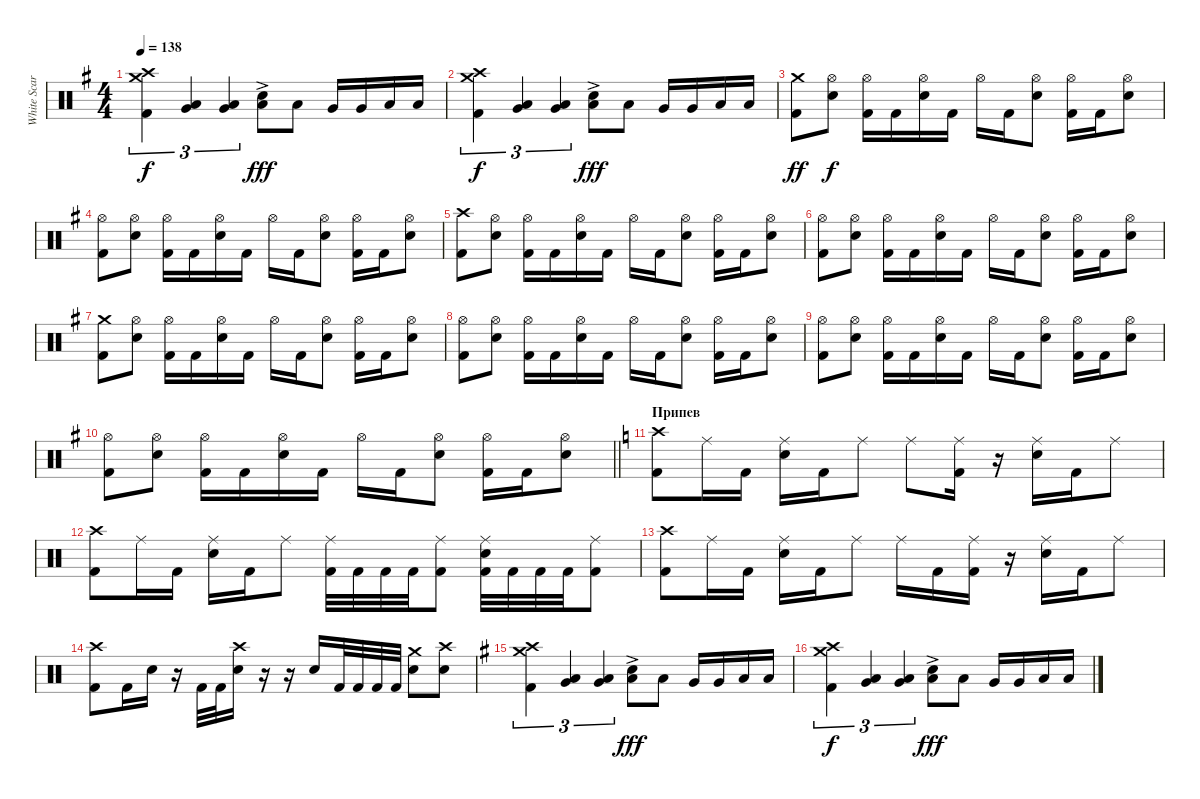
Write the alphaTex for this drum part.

\track ("White Scar" "White Scar") {instrument percussion}
\staff {score}
\articulation defaults
\ts (4 4)
\tempo 138
\clef neutral
\ks eminor
("Crash high (hit)" "Crash medium (hit)" "Kick (hit) 2").4{tu (3 2) dy f} ("Low Tom (hit)" "Very Low Tom (hit)").4{tu (3 2)} ("Very Low Tom (hit)" "Low Floor Tom (hit)").4{tu (3 2)} ("Snare (hit) 2"{ac} "Low Floor Tom (hit)").8{dy fff} "Low Tom (hit)".8 "Very Low Tom (hit)".16 "Very Low Tom (hit)".16 "Low Floor Tom (hit)".16 "Low Floor Tom (hit)".16 |
("Crash high (hit)" "Crash medium (hit)" "Kick (hit) 2").4{tu (3 2) dy f} ("Low Tom (hit)" "Very Low Tom (hit)").4{tu (3 2)} ("Very Low Tom (hit)" "Low Floor Tom (hit)").4{tu (3 2)} ("Snare (hit) 2"{ac} "Low Floor Tom (hit)").8{dy fff} "Low Tom (hit)".8 "Very Low Tom (hit)".16 "Very Low Tom (hit)".16 "Low Floor Tom (hit)".16 "Low Floor Tom (hit)".16 |
("Crash medium (hit)" "Kick (hit) 2").8{dy ff} ("Hi-Hat (open)" "Snare (hit) 2").8{dy f} ("Hi-Hat (open)" "Kick (hit) 2").16 "Kick (hit) 2".16 ("Hi-Hat (open)" "Snare (hit) 2").16 "Kick (hit) 2".16 "Hi-Hat (open)".16 "Kick (hit) 2".16 ("Hi-Hat (open)" "Snare (hit) 2").8 ("Hi-Hat (open)" "Kick (hit) 2").16 "Kick (hit) 2".16 ("Hi-Hat (open)" "Snare (hit) 2").8 |
("Hi-Hat (open)" "Kick (hit) 2").8 ("Hi-Hat (open)" "Snare (hit) 2").8 ("Hi-Hat (open)" "Kick (hit) 2").16 "Kick (hit) 2".16 ("Hi-Hat (open)" "Snare (hit) 2").16 "Kick (hit) 2".16 "Hi-Hat (open)".16 "Kick (hit) 2".16 ("Hi-Hat (open)" "Snare (hit) 2").8 ("Hi-Hat (open)" "Kick (hit) 2").16 "Kick (hit) 2".16 ("Hi-Hat (open)" "Snare (hit) 2").8 |
("Crash high (hit)" "Kick (hit) 2").8 ("Hi-Hat (open)" "Snare (hit) 2").8 ("Hi-Hat (open)" "Kick (hit) 2").16 "Kick (hit) 2".16 ("Hi-Hat (open)" "Snare (hit) 2").16 "Kick (hit) 2".16 "Hi-Hat (open)".16 "Kick (hit) 2".16 ("Hi-Hat (open)" "Snare (hit) 2").8 ("Hi-Hat (open)" "Kick (hit) 2").16 "Kick (hit) 2".16 ("Hi-Hat (open)" "Snare (hit) 2").8 |
("Hi-Hat (open)" "Kick (hit) 2").8 ("Hi-Hat (open)" "Snare (hit) 2").8 ("Hi-Hat (open)" "Kick (hit) 2").16 "Kick (hit) 2".16 ("Hi-Hat (open)" "Snare (hit) 2").16 "Kick (hit) 2".16 "Hi-Hat (open)".16 "Kick (hit) 2".16 ("Hi-Hat (open)" "Snare (hit) 2").8 ("Hi-Hat (open)" "Kick (hit) 2").16 "Kick (hit) 2".16 ("Hi-Hat (open)" "Snare (hit) 2").8 |
("Crash medium (hit)" "Kick (hit) 2").8 ("Hi-Hat (open)" "Snare (hit) 2").8 ("Hi-Hat (open)" "Kick (hit) 2").16 "Kick (hit) 2".16 ("Hi-Hat (open)" "Snare (hit) 2").16 "Kick (hit) 2".16 "Hi-Hat (open)".16 "Kick (hit) 2".16 ("Hi-Hat (open)" "Snare (hit) 2").8 ("Hi-Hat (open)" "Kick (hit) 2").16 "Kick (hit) 2".16 ("Hi-Hat (open)" "Snare (hit) 2").8 |
("Hi-Hat (open)" "Kick (hit) 2").8 ("Hi-Hat (open)" "Snare (hit) 2").8 ("Hi-Hat (open)" "Kick (hit) 2").16 "Kick (hit) 2".16 ("Hi-Hat (open)" "Snare (hit) 2").16 "Kick (hit) 2".16 "Hi-Hat (open)".16 "Kick (hit) 2".16 ("Hi-Hat (open)" "Snare (hit) 2").8 ("Hi-Hat (open)" "Kick (hit) 2").16 "Kick (hit) 2".16 ("Hi-Hat (open)" "Snare (hit) 2").8 |
("Hi-Hat (open)" "Kick (hit) 2").8 ("Hi-Hat (open)" "Snare (hit) 2").8 ("Hi-Hat (open)" "Kick (hit) 2").16 "Kick (hit) 2".16 ("Hi-Hat (open)" "Snare (hit) 2").16 "Kick (hit) 2".16 "Hi-Hat (open)".16 "Kick (hit) 2".16 ("Hi-Hat (open)" "Snare (hit) 2").8 ("Hi-Hat (open)" "Kick (hit) 2").16 "Kick (hit) 2".16 ("Hi-Hat (open)" "Snare (hit) 2").8 |
\barLineRight lightlight
("Hi-Hat (open)" "Kick (hit) 2").8 ("Hi-Hat (open)" "Snare (hit) 2").8 ("Hi-Hat (open)" "Kick (hit) 2").16 "Kick (hit) 2".16 ("Hi-Hat (open)" "Snare (hit) 2").16 "Kick (hit) 2".16 "Hi-Hat (open)".16 "Kick (hit) 2".16 ("Hi-Hat (open)" "Snare (hit) 2").8 ("Hi-Hat (open)" "Kick (hit) 2").16 "Kick (hit) 2".16 ("Hi-Hat (open)" "Snare (hit) 2").8 |
\section ("" "Припев")
\ks c
("Crash high (hit)" "Kick (hit) 2").8 "Ride (middle)".16 "Kick (hit) 2".16 ("Ride (middle)" "Snare (hit) 2").16 "Kick (hit) 2".16 "Ride (middle)".8 "Ride (middle)".8 ("Ride (middle)" "Kick (hit) 2").16 r.16 ("Ride (middle)" "Snare (hit) 2").16 "Kick (hit) 2".16 "Ride (middle)".8 |
("Crash high (hit)" "Kick (hit) 2").8 "Ride (middle)".16 "Kick (hit) 2".16 ("Ride (middle)" "Snare (hit) 2").16 "Kick (hit) 2".16 "Ride (middle)".8 ("Ride (middle)" "Kick (hit) 2").32 "Kick (hit) 2".32 "Kick (hit) 2".32 "Kick (hit) 2".32 ("Ride (middle)" "Kick (hit) 2").8 ("Ride (middle)" "Snare (hit) 2" "Kick (hit) 2").32 "Kick (hit) 2".32 "Kick (hit) 2".32 "Kick (hit) 2".32 ("Ride (middle)" "Kick (hit) 2").8 |
("Crash high (hit)" "Kick (hit) 2").8 "Ride (middle)".16 "Kick (hit) 2".16 ("Ride (middle)" "Snare (hit) 2").16 "Kick (hit) 2".16 "Ride (middle)".8 "Ride (middle)".16 "Kick (hit) 2".16 ("Ride (middle)" "Kick (hit) 2").16 r.16 ("Ride (middle)" "Snare (hit) 2").16 "Kick (hit) 2".16 "Ride (middle)".8 |
("Crash high (hit)" "Kick (hit) 2").8 "Kick (hit) 2".16 "Snare (hit) 2".16 r.16 "Kick (hit) 2".32 "Kick (hit) 2".32 ("Crash high (hit)" "Snare (hit) 2").16 r.16 r.16 "Snare (hit) 2".16 "Kick (hit) 2".32 "Kick (hit) 2".32 "Kick (hit) 2".32 "Kick (hit) 2".32 ("Crash medium (hit)" "Snare (hit) 2").8 ("Crash high (hit)" "Snare (hit) 2").8 |
\ks eminor
("Crash high (hit)" "Crash medium (hit)" "Kick (hit) 2").4{tu (3 2)} ("Low Tom (hit)" "Very Low Tom (hit)").4{tu (3 2)} ("Very Low Tom (hit)" "Low Floor Tom (hit)").4{tu (3 2)} ("Snare (hit) 2"{ac} "Low Floor Tom (hit)").8{dy fff} "Low Tom (hit)".8 "Very Low Tom (hit)".16 "Very Low Tom (hit)".16 "Low Floor Tom (hit)".16 "Low Floor Tom (hit)".16 |
("Crash high (hit)" "Crash medium (hit)" "Kick (hit) 2").4{tu (3 2) dy f} ("Low Tom (hit)" "Very Low Tom (hit)").4{tu (3 2)} ("Very Low Tom (hit)" "Low Floor Tom (hit)").4{tu (3 2)} ("Snare (hit) 2"{ac} "Low Floor Tom (hit)").8{dy fff} "Low Tom (hit)".8 "Very Low Tom (hit)".16 "Very Low Tom (hit)".16 "Low Floor Tom (hit)".16 "Low Floor Tom (hit)".16
